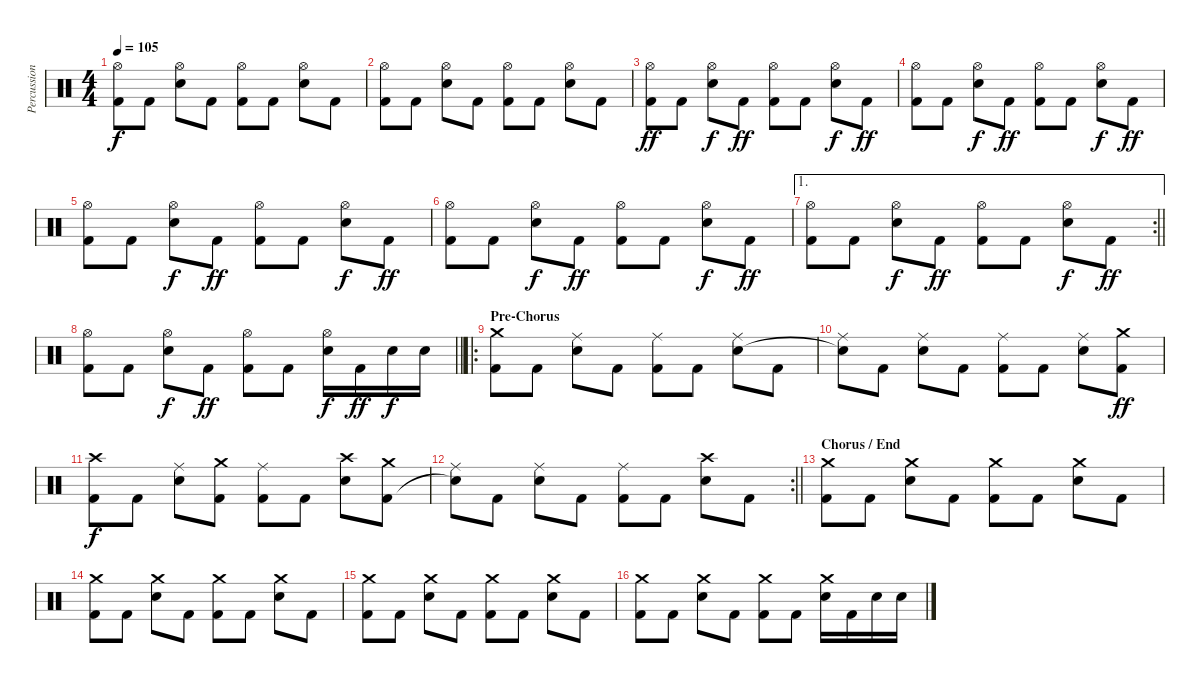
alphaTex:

\track ("Percussions" "Percussion") {instrument percussion}
\staff {score}
\articulation defaults
\ts (4 4)
\tempo 105
\clef neutral
\ks c
("Hi-Hat (open)" "Kick (hit) 2").8{dy f} "Kick (hit) 2".8 ("Hi-Hat (open)" "Electric Snare (hit)").8 "Kick (hit) 2".8 ("Hi-Hat (open)" "Kick (hit) 2").8 "Kick (hit) 2".8 ("Hi-Hat (open)" "Electric Snare (hit)").8 "Kick (hit) 2".8 |
("Hi-Hat (open)" "Kick (hit) 2").8 "Kick (hit) 2".8 ("Hi-Hat (open)" "Electric Snare (hit)").8 "Kick (hit) 2".8 ("Hi-Hat (open)" "Kick (hit) 2").8 "Kick (hit) 2".8 ("Hi-Hat (open)" "Electric Snare (hit)").8 "Kick (hit) 2".8 |
("Hi-Hat (open)" "Kick (hit) 2").8{dy ff} "Kick (hit) 2".8 ("Hi-Hat (open)" "Electric Snare (hit)").8{dy f} "Kick (hit) 2".8{dy ff} ("Hi-Hat (open)" "Kick (hit) 2").8 "Kick (hit) 2".8 ("Hi-Hat (open)" "Electric Snare (hit)").8{dy f} "Kick (hit) 2".8{dy ff} |
("Hi-Hat (open)" "Kick (hit) 2").8 "Kick (hit) 2".8 ("Hi-Hat (open)" "Electric Snare (hit)").8{dy f} "Kick (hit) 2".8{dy ff} ("Hi-Hat (open)" "Kick (hit) 2").8 "Kick (hit) 2".8 ("Hi-Hat (open)" "Electric Snare (hit)").8{dy f} "Kick (hit) 2".8{dy ff} |
("Hi-Hat (open)" "Kick (hit) 2").8 "Kick (hit) 2".8 ("Hi-Hat (open)" "Electric Snare (hit)").8{dy f} "Kick (hit) 2".8{dy ff} ("Hi-Hat (open)" "Kick (hit) 2").8 "Kick (hit) 2".8 ("Hi-Hat (open)" "Electric Snare (hit)").8{dy f} "Kick (hit) 2".8{dy ff} |
("Hi-Hat (open)" "Kick (hit) 2").8 "Kick (hit) 2".8 ("Hi-Hat (open)" "Electric Snare (hit)").8{dy f} "Kick (hit) 2".8{dy ff} ("Hi-Hat (open)" "Kick (hit) 2").8 "Kick (hit) 2".8 ("Hi-Hat (open)" "Electric Snare (hit)").8{dy f} "Kick (hit) 2".8{dy ff} |
\ae 1
\rc 2
\barLineRight lightlight
("Hi-Hat (open)" "Kick (hit) 2").8 "Kick (hit) 2".8 ("Hi-Hat (open)" "Electric Snare (hit)").8{dy f} "Kick (hit) 2".8{dy ff} ("Hi-Hat (open)" "Kick (hit) 2").8 "Kick (hit) 2".8 ("Hi-Hat (open)" "Electric Snare (hit)").8{dy f} "Kick (hit) 2".8{dy ff} |
\barLineRight lightlight
("Hi-Hat (open)" "Kick (hit) 2").8 "Kick (hit) 2".8 ("Hi-Hat (open)" "Electric Snare (hit)").8{dy f} "Kick (hit) 2".8{dy ff} ("Hi-Hat (open)" "Kick (hit) 2").8 "Kick (hit) 2".8 ("Hi-Hat (open)" "Electric Snare (hit)").16{dy f} "Kick (hit) 2".16{dy ff} "Electric Snare (hit)".16{dy f} "Electric Snare (hit)".16 |
\ro
\section ("" "Pre-Chorus")
("Crash medium (hit)" "Kick (hit) 2").8 "Kick (hit) 2".8 ("Ride (middle)" "Electric Snare (hit)").8 "Kick (hit) 2".8 ("Ride (middle)" "Kick (hit) 2").8 "Kick (hit) 2".8 ("Ride (middle)" "Electric Snare (hit)").8 "Kick (hit) 2".8 |
("Ride (middle)" "Snare (hit)"{t}).8 "Kick (hit) 2".8 ("Ride (middle)" "Electric Snare (hit)").8 "Kick (hit) 2".8 ("Ride (middle)" "Kick (hit) 2").8 "Kick (hit) 2".8 ("Ride (middle)" "Electric Snare (hit)").8 ("Crash medium (hit)" "Kick (hit) 2").8{dy ff} |
("Crash high (hit)" "Kick (hit) 2").8{dy f} "Kick (hit) 2".8 ("Ride (middle)" "Electric Snare (hit)").8 ("Crash medium (hit)" "Kick (hit) 2").8 ("Ride (middle)" "Kick (hit) 2").8 "Kick (hit) 2".8 ("Crash high (hit)" "Electric Snare (hit)").8 ("Crash medium (hit)" "Kick (hit) 2").8 |
\rc 2
\barLineRight lightlight
("Ride (middle)" "Snare (hit)"{t}).8 "Kick (hit) 2".8 ("Ride (middle)" "Electric Snare (hit)").8 "Kick (hit) 2".8 ("Ride (middle)" "Kick (hit) 2").8 "Kick (hit) 2".8 ("Crash high (hit)" "Electric Snare (hit)").8 "Kick (hit) 2".8 |
\section ("" "Chorus / End")
("Crash medium (hit)" "Kick (hit) 2").8 "Kick (hit) 2".8 ("Crash medium (hit)" "Electric Snare (hit)").8 "Kick (hit) 2".8 ("Crash medium (hit)" "Kick (hit) 2").8 "Kick (hit) 2".8 ("Crash medium (hit)" "Electric Snare (hit)").8 "Kick (hit) 2".8 |
("Crash medium (hit)" "Kick (hit) 2").8 "Kick (hit) 2".8 ("Crash medium (hit)" "Electric Snare (hit)").8 "Kick (hit) 2".8 ("Crash medium (hit)" "Kick (hit) 2").8 "Kick (hit) 2".8 ("Crash medium (hit)" "Electric Snare (hit)").8 "Kick (hit) 2".8 |
("Crash medium (hit)" "Kick (hit) 2").8 "Kick (hit) 2".8 ("Crash medium (hit)" "Electric Snare (hit)").8 "Kick (hit) 2".8 ("Crash medium (hit)" "Kick (hit) 2").8 "Kick (hit) 2".8 ("Crash medium (hit)" "Electric Snare (hit)").8 "Kick (hit) 2".8 |
("Crash medium (hit)" "Kick (hit) 2").8 "Kick (hit) 2".8 ("Crash medium (hit)" "Electric Snare (hit)").8 "Kick (hit) 2".8 ("Crash medium (hit)" "Kick (hit) 2").8 "Kick (hit) 2".8 ("Crash medium (hit)" "Electric Snare (hit)").16 "Kick (hit) 2".16 "Electric Snare (hit)".16 "Electric Snare (hit)".16
